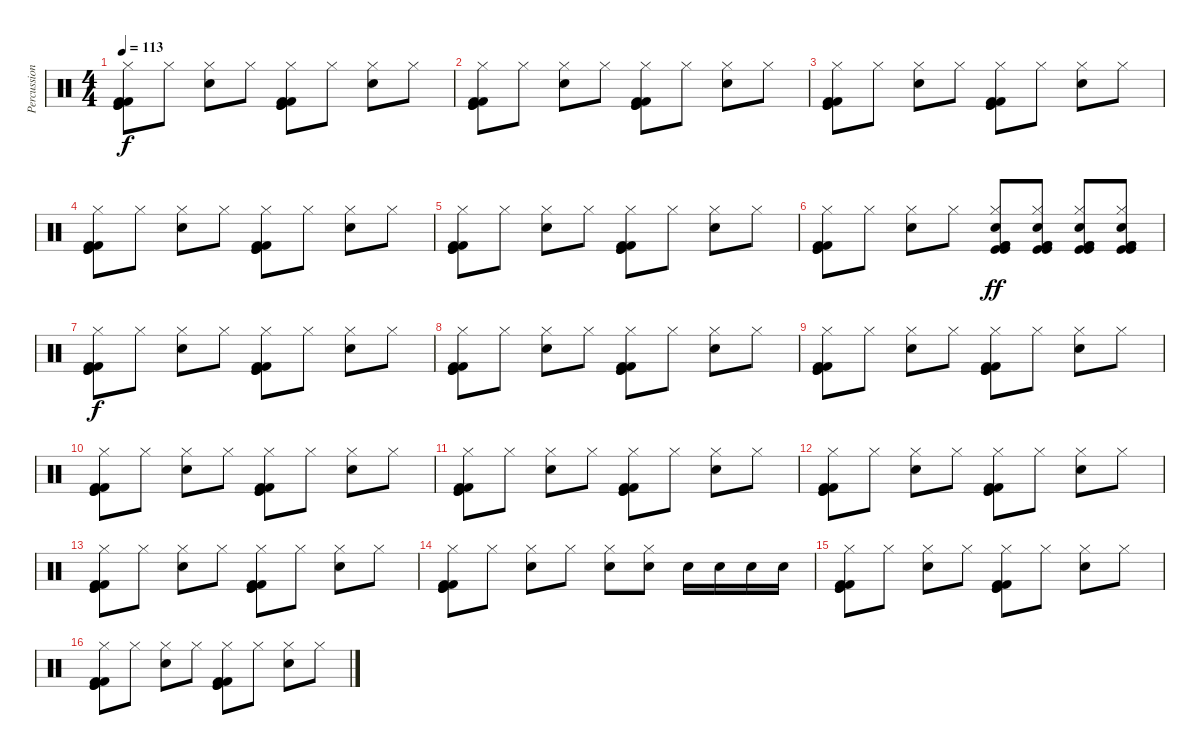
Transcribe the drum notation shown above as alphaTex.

\track ("Percussions" "Percussion") {instrument percussion}
\staff {score}
\articulation defaults
\ts (4 4)
\tempo 113
\clef neutral
\ks c
("Kick (hit)" "Hi-Hat (closed)" "Kick (hit) 2" "Kick (hit)" "Kick (hit) 2").8{dy f} "Hi-Hat (closed)".8 ("Hi-Hat (closed)" "Electric Snare (hit)").8 "Hi-Hat (closed)".8 ("Kick (hit)" "Hi-Hat (closed)" "Kick (hit) 2" "Kick (hit)" "Kick (hit) 2").8 "Hi-Hat (closed)".8 ("Hi-Hat (closed)" "Electric Snare (hit)").8 "Hi-Hat (closed)".8 |
("Kick (hit)" "Hi-Hat (closed)" "Kick (hit) 2" "Kick (hit)" "Kick (hit) 2").8 "Hi-Hat (closed)".8 ("Hi-Hat (closed)" "Electric Snare (hit)").8 "Hi-Hat (closed)".8 ("Kick (hit)" "Hi-Hat (closed)" "Kick (hit) 2" "Kick (hit)" "Kick (hit) 2").8 "Hi-Hat (closed)".8 ("Hi-Hat (closed)" "Electric Snare (hit)").8 "Hi-Hat (closed)".8 |
("Kick (hit)" "Hi-Hat (closed)" "Kick (hit) 2" "Kick (hit)" "Kick (hit) 2").8 "Hi-Hat (closed)".8 ("Hi-Hat (closed)" "Electric Snare (hit)").8 "Hi-Hat (closed)".8 ("Kick (hit)" "Hi-Hat (closed)" "Kick (hit) 2" "Kick (hit)" "Kick (hit) 2").8 "Hi-Hat (closed)".8 ("Hi-Hat (closed)" "Electric Snare (hit)").8 "Hi-Hat (closed)".8 |
("Kick (hit)" "Hi-Hat (closed)" "Kick (hit) 2" "Kick (hit)" "Kick (hit) 2").8 "Hi-Hat (closed)".8 ("Hi-Hat (closed)" "Electric Snare (hit)").8 "Hi-Hat (closed)".8 ("Kick (hit)" "Hi-Hat (closed)" "Kick (hit) 2" "Kick (hit)" "Kick (hit) 2").8 "Hi-Hat (closed)".8 ("Hi-Hat (closed)" "Electric Snare (hit)").8 "Hi-Hat (closed)".8 |
("Kick (hit)" "Hi-Hat (closed)" "Kick (hit) 2" "Kick (hit)" "Kick (hit) 2").8 "Hi-Hat (closed)".8 ("Hi-Hat (closed)" "Electric Snare (hit)").8 "Hi-Hat (closed)".8 ("Kick (hit)" "Hi-Hat (closed)" "Kick (hit) 2" "Kick (hit)" "Kick (hit) 2").8 "Hi-Hat (closed)".8 ("Hi-Hat (closed)" "Electric Snare (hit)").8 "Hi-Hat (closed)".8 |
("Kick (hit)" "Hi-Hat (closed)" "Kick (hit) 2" "Kick (hit)" "Kick (hit) 2").8 "Hi-Hat (closed)".8 ("Hi-Hat (closed)" "Electric Snare (hit)").8 "Hi-Hat (closed)".8 ("Kick (hit)" "Hi-Hat (closed)" "Electric Snare (hit)" "Kick (hit) 2" "Kick (hit)" "Kick (hit) 2").8{dy ff} ("Kick (hit)" "Hi-Hat (closed)" "Electric Snare (hit)" "Kick (hit) 2" "Kick (hit)" "Kick (hit) 2").8 ("Kick (hit)" "Hi-Hat (closed)" "Electric Snare (hit)" "Kick (hit) 2" "Kick (hit)" "Kick (hit) 2").8 ("Kick (hit)" "Hi-Hat (closed)" "Electric Snare (hit)" "Kick (hit) 2" "Kick (hit)" "Kick (hit) 2").8 |
("Kick (hit)" "Hi-Hat (closed)" "Kick (hit) 2" "Kick (hit)" "Kick (hit) 2").8{dy f} "Hi-Hat (closed)".8 ("Hi-Hat (closed)" "Electric Snare (hit)").8 "Hi-Hat (closed)".8 ("Kick (hit)" "Hi-Hat (closed)" "Kick (hit) 2" "Kick (hit)" "Kick (hit) 2").8 "Hi-Hat (closed)".8 ("Hi-Hat (closed)" "Electric Snare (hit)").8 "Hi-Hat (closed)".8 |
("Kick (hit)" "Hi-Hat (closed)" "Kick (hit) 2" "Kick (hit)" "Kick (hit) 2").8 "Hi-Hat (closed)".8 ("Hi-Hat (closed)" "Electric Snare (hit)").8 "Hi-Hat (closed)".8 ("Kick (hit)" "Hi-Hat (closed)" "Kick (hit) 2" "Kick (hit)" "Kick (hit) 2").8 "Hi-Hat (closed)".8 ("Hi-Hat (closed)" "Electric Snare (hit)").8 "Hi-Hat (closed)".8 |
("Kick (hit)" "Hi-Hat (closed)" "Kick (hit) 2" "Kick (hit)" "Kick (hit) 2").8 "Hi-Hat (closed)".8 ("Hi-Hat (closed)" "Electric Snare (hit)").8 "Hi-Hat (closed)".8 ("Kick (hit)" "Hi-Hat (closed)" "Kick (hit) 2" "Kick (hit)" "Kick (hit) 2").8 "Hi-Hat (closed)".8 ("Hi-Hat (closed)" "Electric Snare (hit)").8 "Hi-Hat (closed)".8 |
("Kick (hit)" "Hi-Hat (closed)" "Kick (hit) 2" "Kick (hit)" "Kick (hit) 2").8 "Hi-Hat (closed)".8 ("Hi-Hat (closed)" "Electric Snare (hit)").8 "Hi-Hat (closed)".8 ("Kick (hit)" "Hi-Hat (closed)" "Kick (hit) 2" "Kick (hit)" "Kick (hit) 2").8 "Hi-Hat (closed)".8 ("Hi-Hat (closed)" "Electric Snare (hit)").8 "Hi-Hat (closed)".8 |
("Kick (hit)" "Hi-Hat (closed)" "Kick (hit) 2" "Kick (hit)" "Kick (hit) 2").8 "Hi-Hat (closed)".8 ("Hi-Hat (closed)" "Electric Snare (hit)").8 "Hi-Hat (closed)".8 ("Kick (hit)" "Hi-Hat (closed)" "Kick (hit) 2" "Kick (hit)" "Kick (hit) 2").8 "Hi-Hat (closed)".8 ("Hi-Hat (closed)" "Electric Snare (hit)").8 "Hi-Hat (closed)".8 |
("Kick (hit)" "Hi-Hat (closed)" "Kick (hit) 2" "Kick (hit)" "Kick (hit) 2").8 "Hi-Hat (closed)".8 ("Hi-Hat (closed)" "Electric Snare (hit)").8 "Hi-Hat (closed)".8 ("Kick (hit)" "Hi-Hat (closed)" "Kick (hit) 2" "Kick (hit)" "Kick (hit) 2").8 "Hi-Hat (closed)".8 ("Hi-Hat (closed)" "Electric Snare (hit)").8 "Hi-Hat (closed)".8 |
("Kick (hit)" "Hi-Hat (closed)" "Kick (hit) 2" "Kick (hit)" "Kick (hit) 2").8 "Hi-Hat (closed)".8 ("Hi-Hat (closed)" "Electric Snare (hit)").8 "Hi-Hat (closed)".8 ("Kick (hit)" "Hi-Hat (closed)" "Kick (hit) 2" "Kick (hit)" "Kick (hit) 2").8 "Hi-Hat (closed)".8 ("Hi-Hat (closed)" "Electric Snare (hit)").8 "Hi-Hat (closed)".8 |
("Kick (hit)" "Hi-Hat (closed)" "Kick (hit) 2" "Kick (hit)" "Kick (hit) 2").8 "Hi-Hat (closed)".8 ("Hi-Hat (closed)" "Electric Snare (hit)").8 "Hi-Hat (closed)".8 ("Hi-Hat (closed)" "Electric Snare (hit)").8 ("Hi-Hat (closed)" "Electric Snare (hit)").8 "Electric Snare (hit)".16 "Electric Snare (hit)".16 "Electric Snare (hit)".16 "Electric Snare (hit)".16 |
("Kick (hit)" "Hi-Hat (closed)" "Kick (hit) 2" "Kick (hit)" "Kick (hit) 2").8 "Hi-Hat (closed)".8 ("Hi-Hat (closed)" "Electric Snare (hit)").8 "Hi-Hat (closed)".8 ("Kick (hit)" "Hi-Hat (closed)" "Kick (hit) 2" "Kick (hit)" "Kick (hit) 2").8 "Hi-Hat (closed)".8 ("Hi-Hat (closed)" "Electric Snare (hit)").8 "Hi-Hat (closed)".8 |
("Kick (hit)" "Hi-Hat (closed)" "Kick (hit) 2" "Kick (hit)" "Kick (hit) 2").8 "Hi-Hat (closed)".8 ("Hi-Hat (closed)" "Electric Snare (hit)").8 "Hi-Hat (closed)".8 ("Kick (hit)" "Hi-Hat (closed)" "Kick (hit) 2" "Kick (hit)" "Kick (hit) 2").8 "Hi-Hat (closed)".8 ("Hi-Hat (closed)" "Electric Snare (hit)").8 "Hi-Hat (closed)".8
